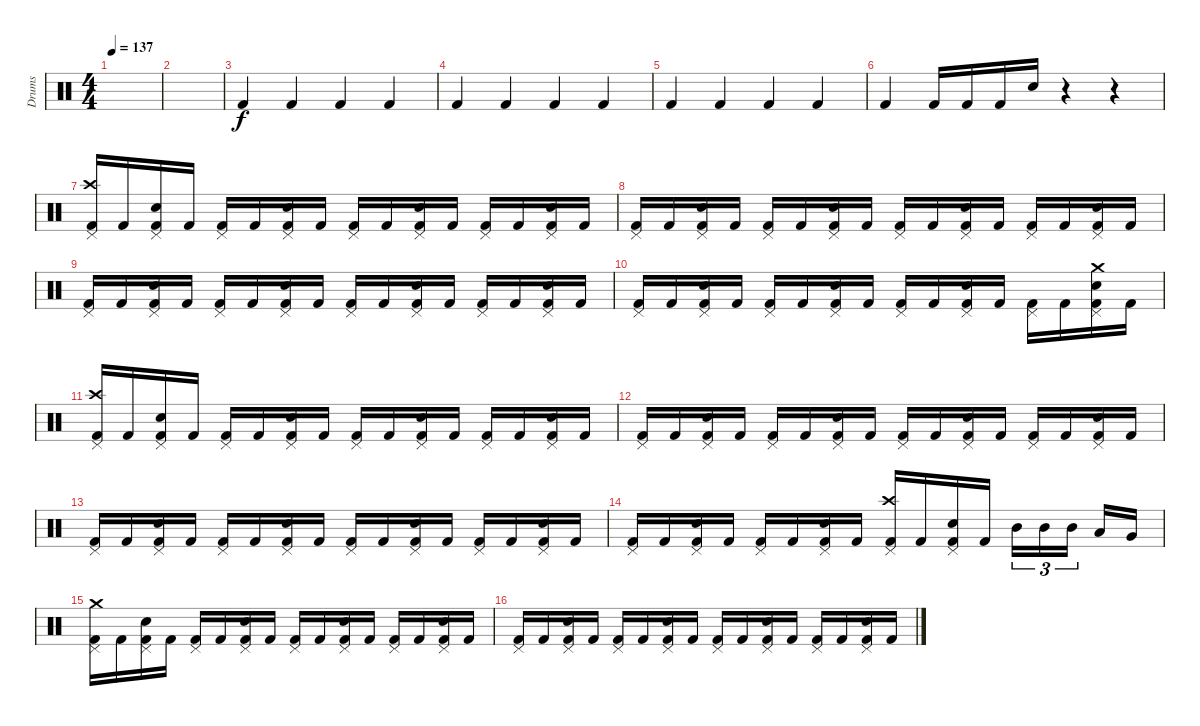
\track ("Drums" "Drums") {instrument percussion}
\staff
\articulation defaults
\ts (4 4)
\tempo 137
\clef neutral
\ks c
|
|
"Kick (hit) 2".4 "Kick (hit) 2".4 "Kick (hit) 2".4 "Kick (hit) 2".4 |
"Kick (hit) 2".4 "Kick (hit) 2".4 "Kick (hit) 2".4 "Kick (hit) 2".4 |
"Kick (hit) 2".4 "Kick (hit) 2".4 "Kick (hit) 2".4 "Kick (hit) 2".4 |
"Kick (hit) 2".4 "Kick (hit) 2".16 "Kick (hit) 2".16 "Kick (hit) 2".16 "Snare (hit) 2".16 r.4 r.4 |
("Crash high (hit)" "Pedal Hi-Hat (hit)" "Kick (hit) 2").16 "Kick (hit) 2".16 ("Pedal Hi-Hat (hit)" "Snare (hit) 2" "Kick (hit) 2").16 "Kick (hit) 2".16 ("Pedal Hi-Hat (hit)" "Kick (hit) 2").16 "Kick (hit) 2".16 ("Pedal Hi-Hat (hit)" "Snare (hit) 2" "Kick (hit) 2").16 "Kick (hit) 2".16 ("Pedal Hi-Hat (hit)" "Kick (hit) 2").16 "Kick (hit) 2".16 ("Pedal Hi-Hat (hit)" "Snare (hit) 2" "Kick (hit) 2").16 "Kick (hit) 2".16 ("Pedal Hi-Hat (hit)" "Kick (hit) 2").16 "Kick (hit) 2".16 ("Pedal Hi-Hat (hit)" "Snare (hit) 2" "Kick (hit) 2").16 "Kick (hit) 2".16 |
("Pedal Hi-Hat (hit)" "Kick (hit) 2").16 "Kick (hit) 2".16 ("Pedal Hi-Hat (hit)" "Snare (hit) 2" "Kick (hit) 2").16 "Kick (hit) 2".16 ("Pedal Hi-Hat (hit)" "Kick (hit) 2").16 "Kick (hit) 2".16 ("Pedal Hi-Hat (hit)" "Snare (hit) 2" "Kick (hit) 2").16 "Kick (hit) 2".16 ("Pedal Hi-Hat (hit)" "Kick (hit) 2").16 "Kick (hit) 2".16 ("Pedal Hi-Hat (hit)" "Snare (hit) 2" "Kick (hit) 2").16 "Kick (hit) 2".16 ("Pedal Hi-Hat (hit)" "Kick (hit) 2").16 "Kick (hit) 2".16 ("Pedal Hi-Hat (hit)" "Snare (hit) 2" "Kick (hit) 2").16 "Kick (hit) 2".16 |
("Pedal Hi-Hat (hit)" "Kick (hit) 2").16 "Kick (hit) 2".16 ("Pedal Hi-Hat (hit)" "Snare (hit) 2" "Kick (hit) 2").16 "Kick (hit) 2".16 ("Pedal Hi-Hat (hit)" "Kick (hit) 2").16 "Kick (hit) 2".16 ("Pedal Hi-Hat (hit)" "Snare (hit) 2" "Kick (hit) 2").16 "Kick (hit) 2".16 ("Pedal Hi-Hat (hit)" "Kick (hit) 2").16 "Kick (hit) 2".16 ("Pedal Hi-Hat (hit)" "Snare (hit) 2" "Kick (hit) 2").16 "Kick (hit) 2".16 ("Pedal Hi-Hat (hit)" "Kick (hit) 2").16 "Kick (hit) 2".16 ("Pedal Hi-Hat (hit)" "Snare (hit) 2" "Kick (hit) 2").16 "Kick (hit) 2".16 |
("Pedal Hi-Hat (hit)" "Kick (hit) 2").16 "Kick (hit) 2".16 ("Pedal Hi-Hat (hit)" "Snare (hit) 2" "Kick (hit) 2").16 "Kick (hit) 2".16 ("Pedal Hi-Hat (hit)" "Kick (hit) 2").16 "Kick (hit) 2".16 ("Pedal Hi-Hat (hit)" "Snare (hit) 2" "Kick (hit) 2").16 "Kick (hit) 2".16 ("Pedal Hi-Hat (hit)" "Kick (hit) 2").16 "Kick (hit) 2".16 ("Pedal Hi-Hat (hit)" "Snare (hit) 2" "Kick (hit) 2").16 "Kick (hit) 2".16 ("Pedal Hi-Hat (hit)" "Kick (hit) 2").16 "Kick (hit) 2".16 ("Crash medium (hit)" "Pedal Hi-Hat (hit)" "Snare (hit) 2" "Kick (hit) 2").16 "Kick (hit) 2".16 |
("Crash high (hit)" "Pedal Hi-Hat (hit)" "Kick (hit) 2").16 "Kick (hit) 2".16 ("Pedal Hi-Hat (hit)" "Snare (hit) 2" "Kick (hit) 2").16 "Kick (hit) 2".16 ("Pedal Hi-Hat (hit)" "Kick (hit) 2").16 "Kick (hit) 2".16 ("Pedal Hi-Hat (hit)" "Snare (hit) 2" "Kick (hit) 2").16 "Kick (hit) 2".16 ("Pedal Hi-Hat (hit)" "Kick (hit) 2").16 "Kick (hit) 2".16 ("Pedal Hi-Hat (hit)" "Snare (hit) 2" "Kick (hit) 2").16 "Kick (hit) 2".16 ("Pedal Hi-Hat (hit)" "Kick (hit) 2").16 "Kick (hit) 2".16 ("Pedal Hi-Hat (hit)" "Snare (hit) 2" "Kick (hit) 2").16 "Kick (hit) 2".16 |
("Pedal Hi-Hat (hit)" "Kick (hit) 2").16 "Kick (hit) 2".16 ("Pedal Hi-Hat (hit)" "Snare (hit) 2" "Kick (hit) 2").16 "Kick (hit) 2".16 ("Pedal Hi-Hat (hit)" "Kick (hit) 2").16 "Kick (hit) 2".16 ("Pedal Hi-Hat (hit)" "Snare (hit) 2" "Kick (hit) 2").16 "Kick (hit) 2".16 ("Pedal Hi-Hat (hit)" "Kick (hit) 2").16 "Kick (hit) 2".16 ("Pedal Hi-Hat (hit)" "Snare (hit) 2" "Kick (hit) 2").16 "Kick (hit) 2".16 ("Pedal Hi-Hat (hit)" "Kick (hit) 2").16 "Kick (hit) 2".16 ("Pedal Hi-Hat (hit)" "Snare (hit) 2" "Kick (hit) 2").16 "Kick (hit) 2".16 |
("Pedal Hi-Hat (hit)" "Kick (hit) 2").16 "Kick (hit) 2".16 ("Pedal Hi-Hat (hit)" "Snare (hit) 2" "Kick (hit) 2").16 "Kick (hit) 2".16 ("Pedal Hi-Hat (hit)" "Kick (hit) 2").16 "Kick (hit) 2".16 ("Pedal Hi-Hat (hit)" "Snare (hit) 2" "Kick (hit) 2").16 "Kick (hit) 2".16 ("Pedal Hi-Hat (hit)" "Kick (hit) 2").16 "Kick (hit) 2".16 ("Pedal Hi-Hat (hit)" "Snare (hit) 2" "Kick (hit) 2").16 "Kick (hit) 2".16 ("Pedal Hi-Hat (hit)" "Kick (hit) 2").16 "Kick (hit) 2".16 ("Pedal Hi-Hat (hit)" "Snare (hit) 2" "Kick (hit) 2").16 "Kick (hit) 2".16 |
("Pedal Hi-Hat (hit)" "Kick (hit) 2").16 "Kick (hit) 2".16 ("Pedal Hi-Hat (hit)" "Snare (hit) 2" "Kick (hit) 2").16 "Kick (hit) 2".16 ("Pedal Hi-Hat (hit)" "Kick (hit) 2").16 "Kick (hit) 2".16 ("Pedal Hi-Hat (hit)" "Snare (hit) 2" "Kick (hit) 2").16 "Kick (hit) 2".16 ("Crash high (hit)" "Pedal Hi-Hat (hit)" "Kick (hit) 2").16 "Kick (hit) 2".16 ("Pedal Hi-Hat (hit)" "Snare (hit) 2" "Kick (hit) 2").16 "Kick (hit) 2".16 "Mid Tom (hit)".16{tu (3 2)} "Mid Tom (hit)".16{tu (3 2)} "Mid Tom (hit)".16{tu (3 2) beam splitsecondary} "Low Tom (hit)".16 "Very Low Tom (hit)".16 |
("Crash medium (hit)" "Pedal Hi-Hat (hit)" "Kick (hit) 2").16 "Kick (hit) 2".16 ("Pedal Hi-Hat (hit)" "Snare (hit) 2" "Kick (hit) 2").16 "Kick (hit) 2".16 ("Pedal Hi-Hat (hit)" "Kick (hit) 2").16 "Kick (hit) 2".16 ("Pedal Hi-Hat (hit)" "Snare (hit) 2" "Kick (hit) 2").16 "Kick (hit) 2".16 ("Pedal Hi-Hat (hit)" "Kick (hit) 2").16 "Kick (hit) 2".16 ("Pedal Hi-Hat (hit)" "Snare (hit) 2" "Kick (hit) 2").16 "Kick (hit) 2".16 ("Pedal Hi-Hat (hit)" "Kick (hit) 2").16 "Kick (hit) 2".16 ("Pedal Hi-Hat (hit)" "Snare (hit) 2" "Kick (hit) 2").16 "Kick (hit) 2".16 |
("Pedal Hi-Hat (hit)" "Kick (hit) 2").16 "Kick (hit) 2".16 ("Pedal Hi-Hat (hit)" "Snare (hit) 2" "Kick (hit) 2").16 "Kick (hit) 2".16 ("Pedal Hi-Hat (hit)" "Kick (hit) 2").16 "Kick (hit) 2".16 ("Pedal Hi-Hat (hit)" "Snare (hit) 2" "Kick (hit) 2").16 "Kick (hit) 2".16 ("Pedal Hi-Hat (hit)" "Kick (hit) 2").16 "Kick (hit) 2".16 ("Pedal Hi-Hat (hit)" "Snare (hit) 2" "Kick (hit) 2").16 "Kick (hit) 2".16 ("Pedal Hi-Hat (hit)" "Kick (hit) 2").16 "Kick (hit) 2".16 ("Pedal Hi-Hat (hit)" "Snare (hit) 2" "Kick (hit) 2").16 "Kick (hit) 2".16
